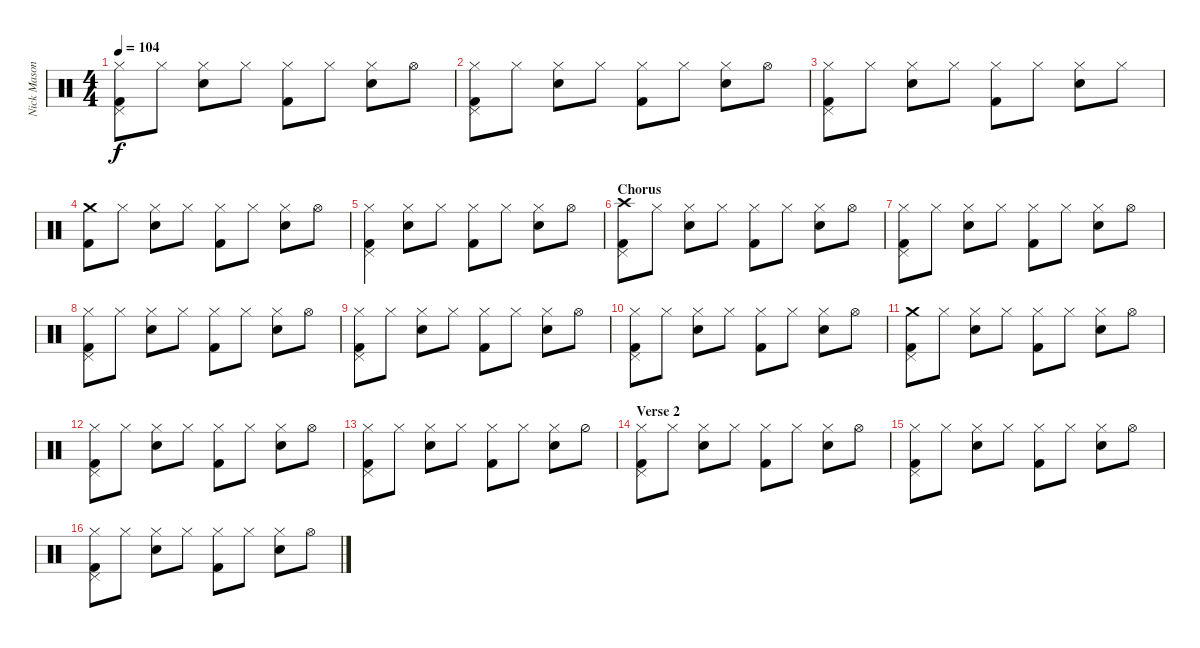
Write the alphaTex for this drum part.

\track ("Nick Mason | Ludwig Drumkit | Drums" "Nick Mason") {instrument percussion}
\staff {score}
\articulation defaults
\ts (4 4)
\tempo 104
\clef neutral
\ks c
("Hi-Hat (closed)" "Kick (hit) 2" "Pedal Hi-Hat (hit)").8{dy f} "Hi-Hat (closed)".8 ("Hi-Hat (closed)" "Snare (hit) 2").8 "Hi-Hat (closed)".8 ("Hi-Hat (closed)" "Kick (hit) 2").8 "Hi-Hat (closed)".8 ("Hi-Hat (closed)" "Snare (hit) 2").8 "Hi-Hat (open)".8 |
("Hi-Hat (closed)" "Kick (hit) 2" "Pedal Hi-Hat (hit)").8 "Hi-Hat (closed)".8 ("Hi-Hat (closed)" "Snare (hit) 2").8 "Hi-Hat (closed)".8 ("Hi-Hat (closed)" "Kick (hit) 2").8 "Hi-Hat (closed)".8 ("Hi-Hat (closed)" "Snare (hit) 2").8 "Hi-Hat (open)".8 |
("Hi-Hat (closed)" "Kick (hit) 2" "Pedal Hi-Hat (hit)").8 "Hi-Hat (closed)".8 ("Hi-Hat (closed)" "Snare (hit) 2").8 "Hi-Hat (closed)".8 ("Hi-Hat (closed)" "Kick (hit) 2").8 "Hi-Hat (closed)".8 ("Hi-Hat (closed)" "Snare (hit) 2").8 "Hi-Hat (closed)".8 |
("Crash medium (hit)" "Kick (hit) 2").8 "Hi-Hat (closed)".8 ("Hi-Hat (closed)" "Snare (hit) 2").8 "Hi-Hat (closed)".8 ("Hi-Hat (closed)" "Kick (hit) 2").8 "Hi-Hat (closed)".8 ("Hi-Hat (closed)" "Snare (hit) 2").8 "Hi-Hat (open)".8 |
("Hi-Hat (closed)" "Kick (hit) 2" "Pedal Hi-Hat (hit)").4 ("Hi-Hat (closed)" "Snare (hit) 2").8 "Hi-Hat (closed)".8 ("Hi-Hat (closed)" "Kick (hit) 2").8 "Hi-Hat (closed)".8 ("Hi-Hat (closed)" "Snare (hit) 2").8 "Hi-Hat (open)".8 |
\section ("" "Chorus")
("Crash high (hit)" "Kick (hit) 2" "Pedal Hi-Hat (hit)").8 "Hi-Hat (closed)".8 ("Hi-Hat (closed)" "Snare (hit) 2").8 "Hi-Hat (closed)".8 ("Hi-Hat (closed)" "Kick (hit) 2").8 "Hi-Hat (closed)".8 ("Hi-Hat (closed)" "Snare (hit) 2").8 "Hi-Hat (open)".8 |
("Hi-Hat (closed)" "Kick (hit) 2" "Pedal Hi-Hat (hit)").8 "Hi-Hat (closed)".8 ("Hi-Hat (closed)" "Snare (hit) 2").8 "Hi-Hat (closed)".8 ("Hi-Hat (closed)" "Kick (hit) 2").8 "Hi-Hat (closed)".8 ("Hi-Hat (closed)" "Snare (hit) 2").8 "Hi-Hat (open)".8 |
("Hi-Hat (closed)" "Kick (hit) 2" "Pedal Hi-Hat (hit)").8 "Hi-Hat (closed)".8 ("Hi-Hat (closed)" "Snare (hit) 2").8 "Hi-Hat (closed)".8 ("Hi-Hat (closed)" "Kick (hit) 2").8 "Hi-Hat (closed)".8 ("Hi-Hat (closed)" "Snare (hit) 2").8 "Hi-Hat (open)".8 |
("Hi-Hat (closed)" "Kick (hit) 2" "Pedal Hi-Hat (hit)").8 "Hi-Hat (closed)".8 ("Hi-Hat (closed)" "Snare (hit) 2").8 "Hi-Hat (closed)".8 ("Hi-Hat (closed)" "Kick (hit) 2").8 "Hi-Hat (closed)".8 ("Hi-Hat (closed)" "Snare (hit) 2").8 "Hi-Hat (open)".8 |
("Hi-Hat (closed)" "Kick (hit) 2" "Pedal Hi-Hat (hit)").8 "Hi-Hat (closed)".8 ("Hi-Hat (closed)" "Snare (hit) 2").8 "Hi-Hat (closed)".8 ("Hi-Hat (closed)" "Kick (hit) 2").8 "Hi-Hat (closed)".8 ("Hi-Hat (closed)" "Snare (hit) 2").8 "Hi-Hat (open)".8 |
("Crash medium (hit)" "Kick (hit) 2" "Pedal Hi-Hat (hit)").8 "Hi-Hat (closed)".8 ("Hi-Hat (closed)" "Snare (hit) 2").8 "Hi-Hat (closed)".8 ("Hi-Hat (closed)" "Kick (hit) 2").8 "Hi-Hat (closed)".8 ("Hi-Hat (closed)" "Snare (hit) 2").8 "Hi-Hat (open)".8 |
("Hi-Hat (closed)" "Kick (hit) 2" "Pedal Hi-Hat (hit)").8 "Hi-Hat (closed)".8 ("Hi-Hat (closed)" "Snare (hit) 2").8 "Hi-Hat (closed)".8 ("Hi-Hat (closed)" "Kick (hit) 2").8 "Hi-Hat (closed)".8 ("Hi-Hat (closed)" "Snare (hit) 2").8 "Hi-Hat (open)".8 |
("Hi-Hat (closed)" "Kick (hit) 2" "Pedal Hi-Hat (hit)").8 "Hi-Hat (closed)".8 ("Hi-Hat (closed)" "Snare (hit) 2").8 "Hi-Hat (closed)".8 ("Hi-Hat (closed)" "Kick (hit) 2").8 "Hi-Hat (closed)".8 ("Hi-Hat (closed)" "Snare (hit) 2").8 "Hi-Hat (half)".8 |
\section ("" "Verse 2")
("Hi-Hat (closed)" "Kick (hit) 2" "Pedal Hi-Hat (hit)").8 "Hi-Hat (closed)".8 ("Hi-Hat (closed)" "Snare (hit) 2").8 "Hi-Hat (closed)".8 ("Hi-Hat (closed)" "Kick (hit) 2").8 "Hi-Hat (closed)".8 ("Hi-Hat (closed)" "Snare (hit) 2").8 "Hi-Hat (open)".8 |
("Hi-Hat (closed)" "Kick (hit) 2" "Pedal Hi-Hat (hit)").8 "Hi-Hat (closed)".8 ("Hi-Hat (closed)" "Snare (hit) 2").8 "Hi-Hat (closed)".8 ("Hi-Hat (closed)" "Kick (hit) 2").8 "Hi-Hat (closed)".8 ("Hi-Hat (closed)" "Snare (hit) 2").8 "Hi-Hat (open)".8 |
("Hi-Hat (closed)" "Kick (hit) 2" "Pedal Hi-Hat (hit)").8 "Hi-Hat (closed)".8 ("Hi-Hat (closed)" "Snare (hit) 2").8 "Hi-Hat (closed)".8 ("Hi-Hat (closed)" "Kick (hit) 2").8 "Hi-Hat (closed)".8 ("Hi-Hat (closed)" "Snare (hit) 2").8 "Hi-Hat (open)".8
